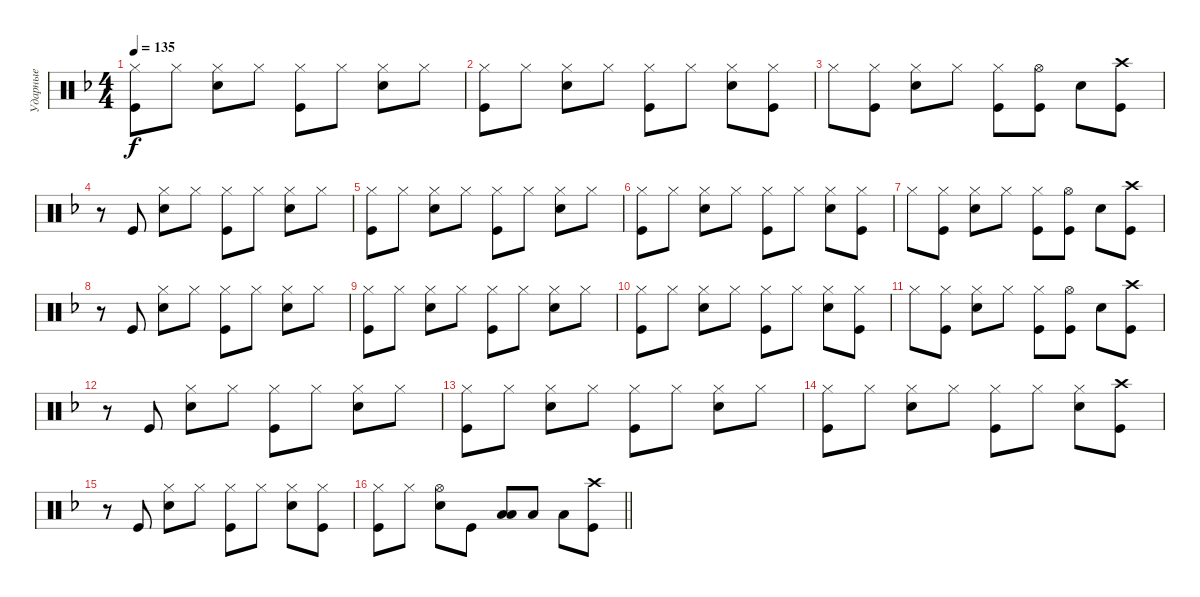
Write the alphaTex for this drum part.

\track ("Ударные" "Ударные") {instrument percussion}
\staff {score}
\articulation defaults
\ts (4 4)
\tempo 135
\clef neutral
\ks dminor
("Hi-Hat (closed)" "Kick (hit)").8{dy f} "Hi-Hat (closed)".8 ("Hi-Hat (closed)" "Snare (hit) 2").8 "Hi-Hat (closed)".8 ("Hi-Hat (closed)" "Kick (hit)").8 "Hi-Hat (closed)".8 ("Hi-Hat (closed)" "Snare (hit) 2").8 "Hi-Hat (closed)".8 |
("Hi-Hat (closed)" "Kick (hit)").8 "Hi-Hat (closed)".8 ("Hi-Hat (closed)" "Snare (hit) 2").8 "Hi-Hat (closed)".8 ("Hi-Hat (closed)" "Kick (hit)").8 "Hi-Hat (closed)".8 ("Hi-Hat (closed)" "Snare (hit) 2").8 ("Hi-Hat (closed)" "Kick (hit)").8 |
"Hi-Hat (closed)".8 ("Hi-Hat (closed)" "Kick (hit)").8 ("Hi-Hat (closed)" "Snare (hit) 2").8 "Hi-Hat (closed)".8 ("Hi-Hat (closed)" "Kick (hit)").8 ("Hi-Hat (open)" "Kick (hit)").8 "Snare (hit) 2".8 ("Kick (hit)" "Crash high (hit)").8 |
r.8 "Kick (hit)".8 ("Hi-Hat (closed)" "Snare (hit) 2").8 "Hi-Hat (closed)".8 ("Hi-Hat (closed)" "Kick (hit)").8 "Hi-Hat (closed)".8 ("Hi-Hat (closed)" "Snare (hit) 2").8 "Hi-Hat (closed)".8 |
("Hi-Hat (closed)" "Kick (hit)").8 "Hi-Hat (closed)".8 ("Hi-Hat (closed)" "Snare (hit) 2").8 "Hi-Hat (closed)".8 ("Hi-Hat (closed)" "Kick (hit)").8 "Hi-Hat (closed)".8 ("Hi-Hat (closed)" "Snare (hit) 2").8 "Hi-Hat (closed)".8 |
("Hi-Hat (closed)" "Kick (hit)").8 "Hi-Hat (closed)".8 ("Hi-Hat (closed)" "Snare (hit) 2").8 "Hi-Hat (closed)".8 ("Hi-Hat (closed)" "Kick (hit)").8 "Hi-Hat (closed)".8 ("Hi-Hat (closed)" "Snare (hit) 2").8 ("Hi-Hat (closed)" "Kick (hit)").8 |
"Hi-Hat (closed)".8 ("Hi-Hat (closed)" "Kick (hit)").8 ("Hi-Hat (closed)" "Snare (hit) 2").8 "Hi-Hat (closed)".8 ("Hi-Hat (closed)" "Kick (hit)").8 ("Hi-Hat (open)" "Kick (hit)").8 "Snare (hit) 2".8 ("Kick (hit)" "Crash high (hit)").8 |
r.8 "Kick (hit)".8 ("Hi-Hat (closed)" "Snare (hit) 2").8 "Hi-Hat (closed)".8 ("Hi-Hat (closed)" "Kick (hit)").8 "Hi-Hat (closed)".8 ("Hi-Hat (closed)" "Snare (hit) 2").8 "Hi-Hat (closed)".8 |
("Hi-Hat (closed)" "Kick (hit)").8 "Hi-Hat (closed)".8 ("Hi-Hat (closed)" "Snare (hit) 2").8 "Hi-Hat (closed)".8 ("Hi-Hat (closed)" "Kick (hit)").8 "Hi-Hat (closed)".8 ("Hi-Hat (closed)" "Snare (hit) 2").8 "Hi-Hat (closed)".8 |
("Hi-Hat (closed)" "Kick (hit)").8 "Hi-Hat (closed)".8 ("Hi-Hat (closed)" "Snare (hit) 2").8 "Hi-Hat (closed)".8 ("Hi-Hat (closed)" "Kick (hit)").8 "Hi-Hat (closed)".8 ("Hi-Hat (closed)" "Snare (hit) 2").8 ("Hi-Hat (closed)" "Kick (hit)").8 |
"Hi-Hat (closed)".8 ("Hi-Hat (closed)" "Kick (hit)").8 ("Hi-Hat (closed)" "Snare (hit) 2").8 "Hi-Hat (closed)".8 ("Hi-Hat (closed)" "Kick (hit)").8 ("Hi-Hat (open)" "Kick (hit)").8 "Snare (hit) 2".8 ("Kick (hit)" "Crash high (hit)").8 |
r.8 "Kick (hit)".8 ("Hi-Hat (closed)" "Snare (hit) 2").8 "Hi-Hat (closed)".8 ("Hi-Hat (closed)" "Kick (hit)").8 "Hi-Hat (closed)".8 ("Hi-Hat (closed)" "Snare (hit) 2").8 "Hi-Hat (closed)".8 |
("Hi-Hat (closed)" "Kick (hit)").8 "Hi-Hat (closed)".8 ("Hi-Hat (closed)" "Snare (hit) 2").8 "Hi-Hat (closed)".8 ("Hi-Hat (closed)" "Kick (hit)").8 "Hi-Hat (closed)".8 ("Hi-Hat (closed)" "Snare (hit) 2").8 "Hi-Hat (closed)".8 |
("Hi-Hat (closed)" "Kick (hit)").8 "Hi-Hat (closed)".8 ("Hi-Hat (closed)" "Snare (hit) 2").8 "Hi-Hat (closed)".8 ("Hi-Hat (closed)" "Kick (hit)").8 "Hi-Hat (closed)".8 ("Hi-Hat (closed)" "Snare (hit) 2").8 ("Crash high (hit)" "Kick (hit)").8 |
r.8 "Kick (hit)".8 ("Hi-Hat (closed)" "Snare (hit) 2").8 "Hi-Hat (closed)".8 ("Hi-Hat (closed)" "Kick (hit)").8 "Hi-Hat (closed)".8 ("Hi-Hat (closed)" "Snare (hit) 2").8 ("Hi-Hat (closed)" "Kick (hit)").8 |
\barLineRight lightlight
("Hi-Hat (closed)" "Kick (hit)").8 "Hi-Hat (closed)".8 ("Hi-Hat (open)" "Snare (hit) 2").8 "Kick (hit)".8 ("Low Tom (hit)" "Low Tom (hit)").8{bd 240} "Low Tom (hit)".8 "Low Tom (hit)".8 ("Kick (hit)" "Crash high (hit)").8
